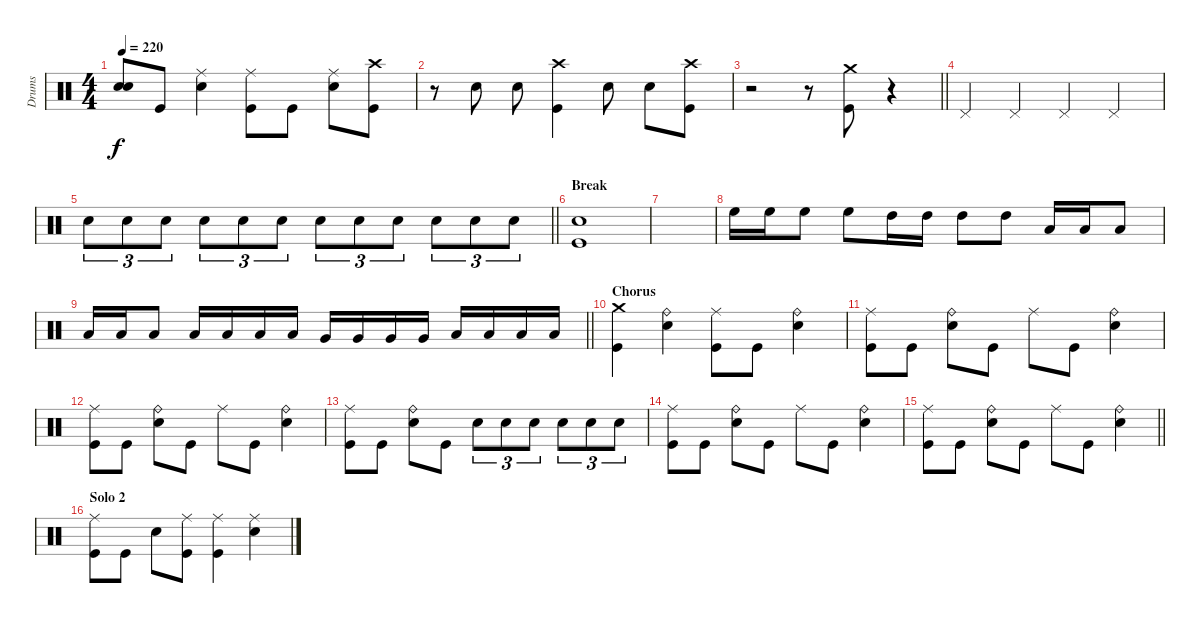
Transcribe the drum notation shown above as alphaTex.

\track ("Drums" "Drums") {instrument percussion}
\staff {score}
\articulation defaults
\ts (4 4)
\tempo 220
\clef neutral
\ks c
("Snare (hit)"{t} "Snare (hit)"{t}).8{dy f} "Kick (hit)".8 ("Ride (middle)" "Snare (hit) 2").4 ("Ride (middle)" "Kick (hit)").8 "Kick (hit)".8 ("Ride (middle)" "Snare (hit) 2").8 ("Crash high (hit)" "Kick (hit)").8 |
r.8 "Snare (hit) 2".8 "Snare (hit) 2".8 ("Crash high (hit)" "Kick (hit)").4 "Snare (hit) 2".8 "Snare (hit) 2".8 ("Crash high (hit)" "Kick (hit)").8 |
\barLineRight lightlight
r.2 r.8 ("Crash medium (hit)" "Kick (hit)").8 r.4 |
"Pedal Hi-Hat (hit)".4 "Pedal Hi-Hat (hit)".4 "Pedal Hi-Hat (hit)".4 "Pedal Hi-Hat (hit)".4 |
\barLineRight lightlight "Snare (hit) 2".8{tu (3 2)} "Snare (hit) 2".8{tu (3 2)} "Snare (hit) 2".8{tu (3 2)} "Snare (hit) 2".8{tu (3 2)} "Snare (hit) 2".8{tu (3 2)} "Snare (hit) 2".8{tu (3 2)} "Snare (hit) 2".8{tu (3 2)} "Snare (hit) 2".8{tu (3 2)} "Snare (hit) 2".8{tu (3 2)} "Snare (hit) 2".8{tu (3 2)} "Snare (hit) 2".8{tu (3 2)} "Snare (hit) 2".8{tu (3 2)}
|
\section ("" "Break")
("Snare (hit) 2" "Kick (hit)").1 |
|
"High Floor Tom (hit)".16 "High Floor Tom (hit)".16 "High Floor Tom (hit)".8 "High Floor Tom (hit)".8 "High Tom (hit)".16 "High Tom (hit)".16 "High Tom (hit)".8 "High Tom (hit)".8 "Low Tom (hit)".16 "Low Tom (hit)".16 "Low Tom (hit)".8 |
\barLineRight lightlight "Low Tom (hit)".16 "Low Tom (hit)".16 "Low Tom (hit)".8 "Low Tom (hit)".16 "Low Tom (hit)".16 "Low Tom (hit)".16 "Low Tom (hit)".16 "Very Low Tom (hit)".16 "Very Low Tom (hit)".16 "Very Low Tom (hit)".16 "Very Low Tom (hit)".16 "Low Floor Tom (hit)".16 "Low Floor Tom (hit)".16 "Low Floor Tom (hit)".16 "Low Floor Tom (hit)".16
|
\section ("" "Chorus")
("Crash medium (hit)" "Kick (hit)").4 ("Ride (bell)" "Snare (hit) 2").4 ("Ride (middle)" "Kick (hit)").8 "Kick (hit)".8 ("Ride (bell)" "Snare (hit) 2").4 |
("Ride (middle)" "Kick (hit)").8 "Kick (hit)".8 ("Ride (bell)" "Snare (hit) 2").8 "Kick (hit)".8 "Ride (middle)".8 "Kick (hit)".8 ("Ride (bell)" "Snare (hit) 2").4 |
("Ride (middle)" "Kick (hit)").8 "Kick (hit)".8 ("Ride (bell)" "Snare (hit) 2").8 "Kick (hit)".8 "Ride (middle)".8 "Kick (hit)".8 ("Ride (bell)" "Snare (hit) 2").4 |
("Ride (middle)" "Kick (hit)").8 "Kick (hit)".8 ("Ride (bell)" "Snare (hit) 2").8 "Kick (hit)".8 "Snare (hit) 2".8{tu (3 2)} "Snare (hit) 2".8{tu (3 2)} "Snare (hit) 2".8{tu (3 2)} "Snare (hit) 2".8{tu (3 2)} "Snare (hit) 2".8{tu (3 2)} "Snare (hit) 2".8{tu (3 2)} |
("Ride (middle)" "Kick (hit)").8 "Kick (hit)".8 ("Ride (bell)" "Snare (hit) 2").8 "Kick (hit)".8 "Ride (middle)".8 "Kick (hit)".8 ("Ride (bell)" "Snare (hit) 2").4 |
\barLineRight lightlight
("Ride (middle)" "Kick (hit)").8 "Kick (hit)".8 ("Ride (bell)" "Snare (hit) 2").8 "Kick (hit)".8 "Ride (middle)".8 "Kick (hit)".8 ("Ride (bell)" "Snare (hit) 2").4 |
\section ("" "Solo 2")
("Ride (middle)" "Kick (hit)").8 "Kick (hit)".8 "Snare (hit) 2".8 ("Ride (middle)" "Kick (hit)").8 ("Ride (middle)" "Kick (hit)").4 ("Ride (middle)" "Snare (hit) 2").4
